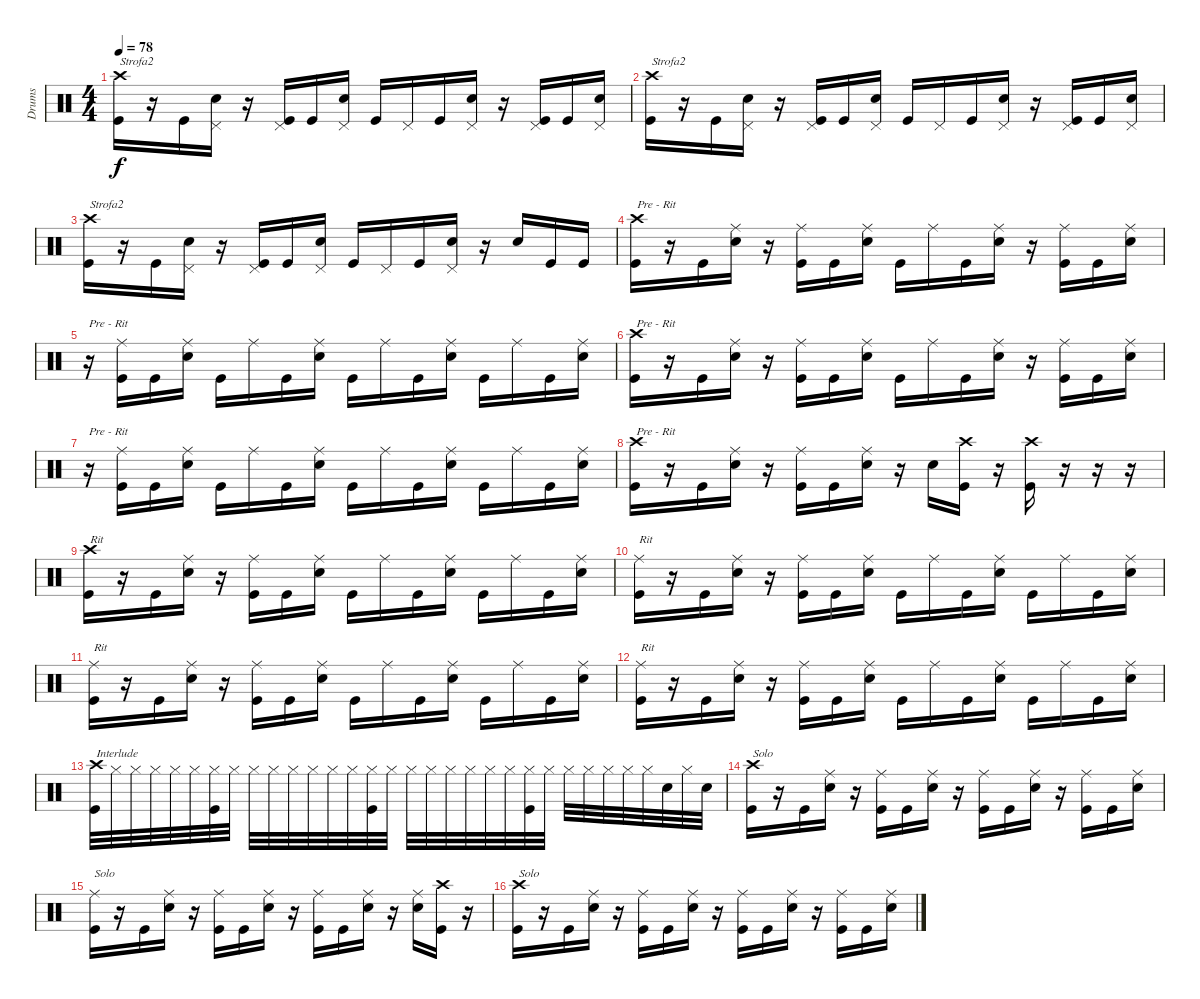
\track ("Drums" "Drums") {instrument percussion}
\staff {score}
\articulation defaults
\ts (4 4)
\tempo 78
\clef neutral
\ks c
("Crash high (hit)" "Kick (hit)").16{txt "Strofa2" dy f} r.16 "Kick (hit)".16 ("Pedal Hi-Hat (hit)" "Snare (hit) 2").16 r.16 ("Pedal Hi-Hat (hit)" "Kick (hit)").16 "Kick (hit)".16 ("Pedal Hi-Hat (hit)" "Snare (hit) 2").16 "Kick (hit)".16 "Pedal Hi-Hat (hit)".16 "Kick (hit)".16 ("Pedal Hi-Hat (hit)" "Snare (hit) 2").16 r.16 ("Pedal Hi-Hat (hit)" "Kick (hit)").16 "Kick (hit)".16 ("Pedal Hi-Hat (hit)" "Snare (hit) 2").16 |
("Crash high (hit)" "Kick (hit)").16{txt "Strofa2"} r.16 "Kick (hit)".16 ("Pedal Hi-Hat (hit)" "Snare (hit) 2").16 r.16 ("Pedal Hi-Hat (hit)" "Kick (hit)").16 "Kick (hit)".16 ("Pedal Hi-Hat (hit)" "Snare (hit) 2").16 "Kick (hit)".16 "Pedal Hi-Hat (hit)".16 "Kick (hit)".16 ("Pedal Hi-Hat (hit)" "Snare (hit) 2").16 r.16 ("Pedal Hi-Hat (hit)" "Kick (hit)").16 "Kick (hit)".16 ("Pedal Hi-Hat (hit)" "Snare (hit) 2").16 |
("Crash high (hit)" "Kick (hit)").16{txt "Strofa2"} r.16 "Kick (hit)".16 ("Pedal Hi-Hat (hit)" "Snare (hit) 2").16 r.16 ("Pedal Hi-Hat (hit)" "Kick (hit)").16 "Kick (hit)".16 ("Pedal Hi-Hat (hit)" "Snare (hit) 2").16 "Kick (hit)".16 "Pedal Hi-Hat (hit)".16 "Kick (hit)".16 ("Pedal Hi-Hat (hit)" "Snare (hit) 2").16 r.16 "Snare (hit) 2".16 "Kick (hit)".16 "Kick (hit)".16 |
("Crash high (hit)" "Kick (hit)").16{txt "Pre - Rit"} r.16 "Kick (hit)".16 ("Ride (middle)" "Snare (hit) 2").16 r.16 ("Ride (middle)" "Kick (hit)").16 "Kick (hit)".16 ("Ride (middle)" "Snare (hit) 2").16 "Kick (hit)".16 "Ride (middle)".16 "Kick (hit)".16 ("Ride (middle)" "Snare (hit) 2").16 r.16 ("Ride (middle)" "Kick (hit)").16 "Kick (hit)".16 ("Ride (middle)" "Snare (hit) 2").16 |
r.16{txt "Pre - Rit"} ("Ride (middle)" "Kick (hit)").16 "Kick (hit)".16 ("Ride (middle)" "Snare (hit) 2").16 "Kick (hit)".16 "Ride (middle)".16 "Kick (hit)".16 ("Ride (middle)" "Snare (hit) 2").16 "Kick (hit)".16 "Ride (middle)".16 "Kick (hit)".16 ("Ride (middle)" "Snare (hit) 2").16 "Kick (hit)".16 "Ride (middle)".16 "Kick (hit)".16 ("Ride (middle)" "Snare (hit) 2").16 |
("Crash high (hit)" "Kick (hit)").16{txt "Pre - Rit"} r.16 "Kick (hit)".16 ("Ride (middle)" "Snare (hit) 2").16 r.16 ("Ride (middle)" "Kick (hit)").16 "Kick (hit)".16 ("Ride (middle)" "Snare (hit) 2").16 "Kick (hit)".16 "Ride (middle)".16 "Kick (hit)".16 ("Ride (middle)" "Snare (hit) 2").16 r.16 ("Ride (middle)" "Kick (hit)").16 "Kick (hit)".16 ("Ride (middle)" "Snare (hit) 2").16 |
r.16{txt "Pre - Rit"} ("Ride (middle)" "Kick (hit)").16 "Kick (hit)".16 ("Ride (middle)" "Snare (hit) 2").16 "Kick (hit)".16 "Ride (middle)".16 "Kick (hit)".16 ("Ride (middle)" "Snare (hit) 2").16 "Kick (hit)".16 "Ride (middle)".16 "Kick (hit)".16 ("Ride (middle)" "Snare (hit) 2").16 "Kick (hit)".16 "Ride (middle)".16 "Kick (hit)".16 ("Ride (middle)" "Snare (hit) 2").16 |
("Crash high (hit)" "Kick (hit)").16{txt "Pre - Rit"} r.16 "Kick (hit)".16 ("Ride (middle)" "Snare (hit) 2").16 r.16 ("Ride (middle)" "Kick (hit)").16 "Kick (hit)".16 ("Ride (middle)" "Snare (hit) 2").16 r.16 "Snare (hit) 2".16 ("Crash high (hit)" "Kick (hit)").16 r.16 ("Crash high (hit)" "Kick (hit)").16 r.16 r.16 r.16 |
("Crash high (hit)" "Kick (hit)").16{txt "Rit"} r.16 "Kick (hit)".16 ("Ride (middle)" "Snare (hit) 2").16 r.16 ("Ride (middle)" "Kick (hit)").16 "Kick (hit)".16 ("Ride (middle)" "Snare (hit) 2").16 "Kick (hit)".16 "Ride (middle)".16 "Kick (hit)".16 ("Ride (middle)" "Snare (hit) 2").16 "Kick (hit)".16 "Ride (middle)".16 "Kick (hit)".16 ("Ride (middle)" "Snare (hit) 2").16 |
("Ride (middle)" "Kick (hit)").16{txt "Rit"} r.16 "Kick (hit)".16 ("Ride (middle)" "Snare (hit) 2").16 r.16 ("Ride (middle)" "Kick (hit)").16 "Kick (hit)".16 ("Ride (middle)" "Snare (hit) 2").16 "Kick (hit)".16 "Ride (middle)".16 "Kick (hit)".16 ("Ride (middle)" "Snare (hit) 2").16 "Kick (hit)".16 "Ride (middle)".16 "Kick (hit)".16 ("Ride (middle)" "Snare (hit) 2").16 |
("Ride (middle)" "Kick (hit)").16{txt "Rit"} r.16 "Kick (hit)".16 ("Ride (middle)" "Snare (hit) 2").16 r.16 ("Ride (middle)" "Kick (hit)").16 "Kick (hit)".16 ("Ride (middle)" "Snare (hit) 2").16 "Kick (hit)".16 "Ride (middle)".16 "Kick (hit)".16 ("Ride (middle)" "Snare (hit) 2").16 "Kick (hit)".16 "Ride (middle)".16 "Kick (hit)".16 ("Ride (middle)" "Snare (hit) 2").16 |
("Ride (middle)" "Kick (hit)").16{txt "Rit"} r.16 "Kick (hit)".16 ("Ride (middle)" "Snare (hit) 2").16 r.16 ("Ride (middle)" "Kick (hit)").16 "Kick (hit)".16 ("Ride (middle)" "Snare (hit) 2").16 "Kick (hit)".16 "Ride (middle)".16 "Kick (hit)".16 ("Ride (middle)" "Snare (hit) 2").16 "Kick (hit)".16 "Ride (middle)".16 "Kick (hit)".16 ("Ride (middle)" "Snare (hit) 2").16 |
("Crash high (hit)" "Kick (hit)").32{txt "Interlude"} "Hi-Hat (closed)".32 "Hi-Hat (closed)".32 "Hi-Hat (closed)".32 "Hi-Hat (closed)".32 "Hi-Hat (closed)".32 ("Hi-Hat (closed)" "Kick (hit)").32 "Hi-Hat (closed)".32 "Hi-Hat (closed)".32 "Hi-Hat (closed)".32 "Hi-Hat (closed)".32 "Hi-Hat (closed)".32 "Hi-Hat (closed)".32 "Hi-Hat (closed)".32 ("Hi-Hat (closed)" "Kick (hit)").32 "Hi-Hat (closed)".32 "Hi-Hat (closed)".32 "Hi-Hat (closed)".32 "Hi-Hat (closed)".32 "Hi-Hat (closed)".32 "Hi-Hat (closed)".32 "Hi-Hat (closed)".32 ("Hi-Hat (closed)" "Kick (hit)").32 "Hi-Hat (closed)".32 "Hi-Hat (closed)".32 "Hi-Hat (closed)".32 "Hi-Hat (closed)".32 "Hi-Hat (closed)".32 "Hi-Hat (closed)".32 "Snare (hit) 2".32 "Hi-Hat (closed)".32 "Snare (hit) 2".32 |
("Crash high (hit)" "Kick (hit)").16{txt "Solo"} r.16 "Kick (hit)".16 ("Ride (middle)" "Snare (hit) 2").16 r.16 ("Ride (middle)" "Kick (hit)").16 "Kick (hit)".16 ("Ride (middle)" "Snare (hit) 2").16 r.16 ("Ride (middle)" "Kick (hit)").16 "Kick (hit)".16 ("Ride (middle)" "Snare (hit) 2").16 r.16 ("Ride (middle)" "Kick (hit)").16 "Kick (hit)".16 ("Ride (middle)" "Snare (hit) 2").16 |
("Ride (middle)" "Kick (hit)").16{txt "Solo"} r.16 "Kick (hit)".16 ("Ride (middle)" "Snare (hit) 2").16 r.16 ("Ride (middle)" "Kick (hit)").16 "Kick (hit)".16 ("Ride (middle)" "Snare (hit) 2").16 r.16 ("Ride (middle)" "Kick (hit)").16 "Kick (hit)".16 ("Ride (middle)" "Snare (hit) 2").16 r.16 ("Ride (middle)" "Snare (hit) 2").16 ("Crash high (hit)" "Kick (hit)").16 r.16 |
("Crash high (hit)" "Kick (hit)").16{txt "Solo"} r.16 "Kick (hit)".16 ("Ride (middle)" "Snare (hit) 2").16 r.16 ("Ride (middle)" "Kick (hit)").16 "Kick (hit)".16 ("Ride (middle)" "Snare (hit) 2").16 r.16 ("Ride (middle)" "Kick (hit)").16 "Kick (hit)".16 ("Ride (middle)" "Snare (hit) 2").16 r.16 ("Ride (middle)" "Kick (hit)").16 "Kick (hit)".16 ("Ride (middle)" "Snare (hit) 2").16
